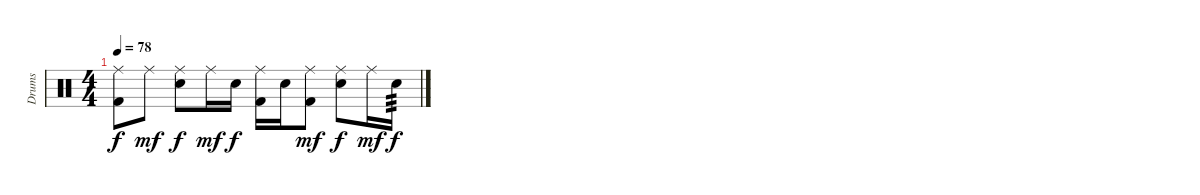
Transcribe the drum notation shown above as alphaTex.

\track ("Drums" "Drums") {instrument percussion}
\staff {score}
\articulation defaults
\ts (4 4)
\tempo 78
\clef neutral
\ks c
("Ride (middle)" "Kick (hit) 2").8{dy f} "Ride (middle)".8{dy mf} ("Ride (middle)" "Snare (hit) 2").8{dy f} "Ride (middle)".16{dy mf} "Snare (hit) 2".16{dy f} ("Ride (middle)" "Kick (hit) 2").16 "Snare (hit) 2".16 ("Ride (middle)" "Kick (hit) 2").8{dy mf} ("Ride (middle)" "Snare (hit) 2").8{dy f} "Ride (middle)".16{dy mf} "Snare (hit) 2".16{tp 3 dy f}
